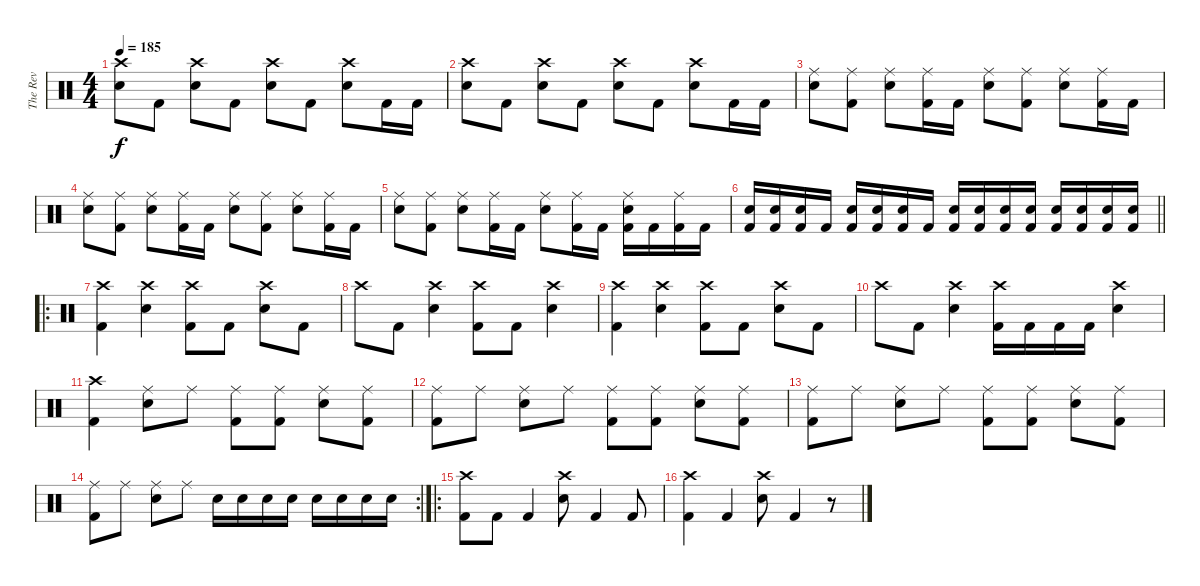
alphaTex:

\track ("The Rev" "The Rev") {instrument percussion}
\staff {score}
\articulation defaults
\ts (4 4)
\tempo 185
\clef neutral
\ks c
("Crash high (hit)" "Electric Snare (hit)").8{dy f} "Kick (hit) 2".8 ("Crash high (hit)" "Electric Snare (hit)").8 "Kick (hit) 2".8 ("Crash high (hit)" "Electric Snare (hit)").8 "Kick (hit) 2".8 ("Crash high (hit)" "Electric Snare (hit)").8 "Kick (hit) 2".16 "Kick (hit) 2".16 |
("Crash high (hit)" "Electric Snare (hit)").8 "Kick (hit) 2".8 ("Crash high (hit)" "Electric Snare (hit)").8 "Kick (hit) 2".8 ("Crash high (hit)" "Electric Snare (hit)").8 "Kick (hit) 2".8 ("Crash high (hit)" "Electric Snare (hit)").8 "Kick (hit) 2".16 "Kick (hit) 2".16 |
("Ride (middle)" "Electric Snare (hit)").8 ("Ride (middle)" "Kick (hit) 2").8 ("Ride (middle)" "Electric Snare (hit)").8 ("Ride (middle)" "Kick (hit) 2").16 "Kick (hit) 2".16 ("Ride (middle)" "Electric Snare (hit)").8 ("Ride (middle)" "Kick (hit) 2").8 ("Ride (middle)" "Electric Snare (hit)").8 ("Ride (middle)" "Kick (hit) 2").16 "Kick (hit) 2".16 |
("Ride (middle)" "Electric Snare (hit)").8 ("Ride (middle)" "Kick (hit) 2").8 ("Ride (middle)" "Electric Snare (hit)").8 ("Ride (middle)" "Kick (hit) 2").16 "Kick (hit) 2".16 ("Ride (middle)" "Electric Snare (hit)").8 ("Ride (middle)" "Kick (hit) 2").8 ("Ride (middle)" "Electric Snare (hit)").8 ("Ride (middle)" "Kick (hit) 2").16 "Kick (hit) 2".16 |
("Ride (middle)" "Electric Snare (hit)").8 ("Ride (middle)" "Kick (hit) 2").8 ("Ride (middle)" "Electric Snare (hit)").8 ("Ride (middle)" "Kick (hit) 2").16 "Kick (hit) 2".16 ("Ride (middle)" "Electric Snare (hit)").8 ("Ride (middle)" "Kick (hit) 2").16 "Kick (hit) 2".16 ("Ride (middle)" "Electric Snare (hit)" "Kick (hit) 2").16 "Kick (hit) 2".16 ("Ride (middle)" "Kick (hit) 2").16 "Kick (hit) 2".16 |
\barLineRight lightlight
("Electric Snare (hit)" "Kick (hit) 2").16 ("Electric Snare (hit)" "Kick (hit) 2").16 ("Electric Snare (hit)" "Kick (hit) 2").16 "Kick (hit) 2".16 ("Electric Snare (hit)" "Kick (hit) 2").16 ("Electric Snare (hit)" "Kick (hit) 2").16 ("Electric Snare (hit)" "Kick (hit) 2").16 "Kick (hit) 2".16 ("Electric Snare (hit)" "Kick (hit) 2").16 ("Electric Snare (hit)" "Kick (hit) 2").16 ("Electric Snare (hit)" "Kick (hit) 2").16 ("Electric Snare (hit)" "Kick (hit) 2").16 ("Electric Snare (hit)" "Kick (hit) 2").16 ("Electric Snare (hit)" "Kick (hit) 2").16 ("Electric Snare (hit)" "Kick (hit) 2").16 ("Electric Snare (hit)" "Kick (hit) 2").16 |
\ro
("Crash high (hit)" "Kick (hit) 2").4 ("Crash high (hit)" "Electric Snare (hit)").4 ("Crash high (hit)" "Kick (hit) 2").8 "Kick (hit) 2".8 ("Crash high (hit)" "Electric Snare (hit)").8 "Kick (hit) 2".8 |
"Crash high (hit)".8 "Kick (hit) 2".8 ("Crash high (hit)" "Electric Snare (hit)").4 ("Crash high (hit)" "Kick (hit) 2").8 "Kick (hit) 2".8 ("Crash high (hit)" "Electric Snare (hit)").4 |
("Crash high (hit)" "Kick (hit) 2").4 ("Crash high (hit)" "Electric Snare (hit)").4 ("Crash high (hit)" "Kick (hit) 2").8 "Kick (hit) 2".8 ("Crash high (hit)" "Electric Snare (hit)").8 "Kick (hit) 2".8 |
"Crash high (hit)".8 "Kick (hit) 2".8 ("Crash high (hit)" "Electric Snare (hit)").4 ("Crash high (hit)" "Kick (hit) 2").16 "Kick (hit) 2".16 "Kick (hit) 2".16 "Kick (hit) 2".16 ("Crash high (hit)" "Electric Snare (hit)").4 |
("Crash high (hit)" "Kick (hit) 2").4 ("Ride (middle)" "Electric Snare (hit)").8 "Ride (middle)".8 ("Ride (middle)" "Kick (hit) 2").8 ("Ride (middle)" "Kick (hit) 2").8 ("Ride (middle)" "Electric Snare (hit)").8 ("Ride (middle)" "Kick (hit) 2").8 |
("Ride (middle)" "Kick (hit) 2").8 "Ride (middle)".8 ("Ride (middle)" "Electric Snare (hit)").8 "Ride (middle)".8 ("Ride (middle)" "Kick (hit) 2").8 ("Ride (middle)" "Kick (hit) 2").8 ("Ride (middle)" "Electric Snare (hit)").8 ("Ride (middle)" "Kick (hit) 2").8 |
("Ride (middle)" "Kick (hit) 2").8 "Ride (middle)".8 ("Ride (middle)" "Electric Snare (hit)").8 "Ride (middle)".8 ("Ride (middle)" "Kick (hit) 2").8 ("Ride (middle)" "Kick (hit) 2").8 ("Ride (middle)" "Electric Snare (hit)").8 ("Ride (middle)" "Kick (hit) 2").8 |
\rc 2
("Ride (middle)" "Kick (hit) 2").8 "Ride (middle)".8 ("Ride (middle)" "Electric Snare (hit)").8 "Ride (middle)".8 "Electric Snare (hit)".16 "Electric Snare (hit)".16 "Electric Snare (hit)".16 "Electric Snare (hit)".16 "Electric Snare (hit)".16 "Electric Snare (hit)".16 "Electric Snare (hit)".16 "Electric Snare (hit)".16 |
\ro
("Crash high (hit)" "Kick (hit) 2").8 "Kick (hit) 2".8 "Kick (hit) 2".4 ("Crash high (hit)" "Electric Snare (hit)").8 "Kick (hit) 2".4 "Kick (hit) 2".8 |
("Crash high (hit)" "Kick (hit) 2").4 "Kick (hit) 2".4 ("Crash high (hit)" "Electric Snare (hit)").8 "Kick (hit) 2".4 r.8
